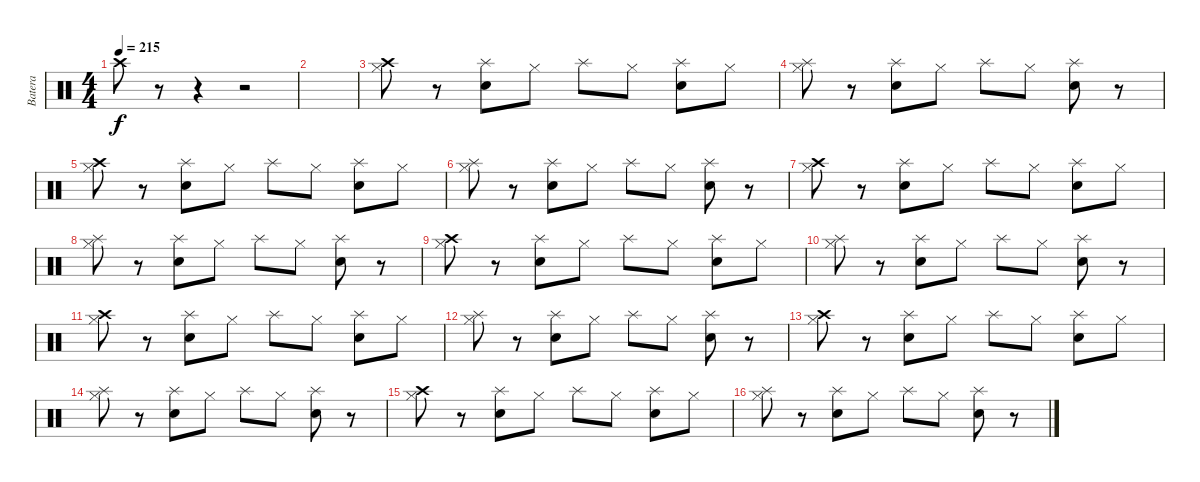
\track ("Batera" "Batera") {instrument percussion}
\staff {score}
\articulation defaults
\ts (4 4)
\tempo 215
\clef neutral
\ks c "Crash high (hit)".8{dy f}
r.8 r.4 r.2 |
|
("Crash high (hit)" "Hi-Hat (closed)").8 r.8 ("Splash (hit)" "Electric Snare (hit)").8 "Hi-Hat (closed)".8 "Splash (hit)".8 "Hi-Hat (closed)".8 ("Splash (hit)" "Electric Snare (hit)").8 "Hi-Hat (closed)".8 |
("Splash (hit)" "Hi-Hat (closed)").8 r.8 ("Splash (hit)" "Electric Snare (hit)").8 "Hi-Hat (closed)".8 "Splash (hit)".8 "Hi-Hat (closed)".8 ("Splash (hit)" "Electric Snare (hit)").8 r.8 |
("Crash high (hit)" "Hi-Hat (closed)").8 r.8 ("Splash (hit)" "Electric Snare (hit)").8 "Hi-Hat (closed)".8 "Splash (hit)".8 "Hi-Hat (closed)".8 ("Splash (hit)" "Electric Snare (hit)").8 "Hi-Hat (closed)".8 |
("Splash (hit)" "Hi-Hat (closed)").8 r.8 ("Splash (hit)" "Electric Snare (hit)").8 "Hi-Hat (closed)".8 "Splash (hit)".8 "Hi-Hat (closed)".8 ("Splash (hit)" "Electric Snare (hit)").8 r.8 |
("Crash high (hit)" "Hi-Hat (closed)").8 r.8 ("Splash (hit)" "Electric Snare (hit)").8 "Hi-Hat (closed)".8 "Splash (hit)".8 "Hi-Hat (closed)".8 ("Splash (hit)" "Electric Snare (hit)").8 "Hi-Hat (closed)".8 |
("Splash (hit)" "Hi-Hat (closed)").8 r.8 ("Splash (hit)" "Electric Snare (hit)").8 "Hi-Hat (closed)".8 "Splash (hit)".8 "Hi-Hat (closed)".8 ("Splash (hit)" "Electric Snare (hit)").8 r.8 |
("Crash high (hit)" "Hi-Hat (closed)").8 r.8 ("Splash (hit)" "Electric Snare (hit)").8 "Hi-Hat (closed)".8 "Splash (hit)".8 "Hi-Hat (closed)".8 ("Splash (hit)" "Electric Snare (hit)").8 "Hi-Hat (closed)".8 |
("Splash (hit)" "Hi-Hat (closed)").8 r.8 ("Splash (hit)" "Electric Snare (hit)").8 "Hi-Hat (closed)".8 "Splash (hit)".8 "Hi-Hat (closed)".8 ("Splash (hit)" "Electric Snare (hit)").8 r.8 |
("Crash high (hit)" "Hi-Hat (closed)").8 r.8 ("Splash (hit)" "Electric Snare (hit)").8 "Hi-Hat (closed)".8 "Splash (hit)".8 "Hi-Hat (closed)".8 ("Splash (hit)" "Electric Snare (hit)").8 "Hi-Hat (closed)".8 |
("Splash (hit)" "Hi-Hat (closed)").8 r.8 ("Splash (hit)" "Electric Snare (hit)").8 "Hi-Hat (closed)".8 "Splash (hit)".8 "Hi-Hat (closed)".8 ("Splash (hit)" "Electric Snare (hit)").8 r.8 |
("Crash high (hit)" "Hi-Hat (closed)").8 r.8 ("Splash (hit)" "Electric Snare (hit)").8 "Hi-Hat (closed)".8 "Splash (hit)".8 "Hi-Hat (closed)".8 ("Splash (hit)" "Electric Snare (hit)").8 "Hi-Hat (closed)".8 |
("Splash (hit)" "Hi-Hat (closed)").8 r.8 ("Splash (hit)" "Electric Snare (hit)").8 "Hi-Hat (closed)".8 "Splash (hit)".8 "Hi-Hat (closed)".8 ("Splash (hit)" "Electric Snare (hit)").8 r.8 |
("Crash high (hit)" "Hi-Hat (closed)").8 r.8 ("Splash (hit)" "Electric Snare (hit)").8 "Hi-Hat (closed)".8 "Splash (hit)".8 "Hi-Hat (closed)".8 ("Splash (hit)" "Electric Snare (hit)").8 "Hi-Hat (closed)".8 |
("Splash (hit)" "Hi-Hat (closed)").8 r.8 ("Splash (hit)" "Electric Snare (hit)").8 "Hi-Hat (closed)".8 "Splash (hit)".8 "Hi-Hat (closed)".8 ("Splash (hit)" "Electric Snare (hit)").8 r.8
